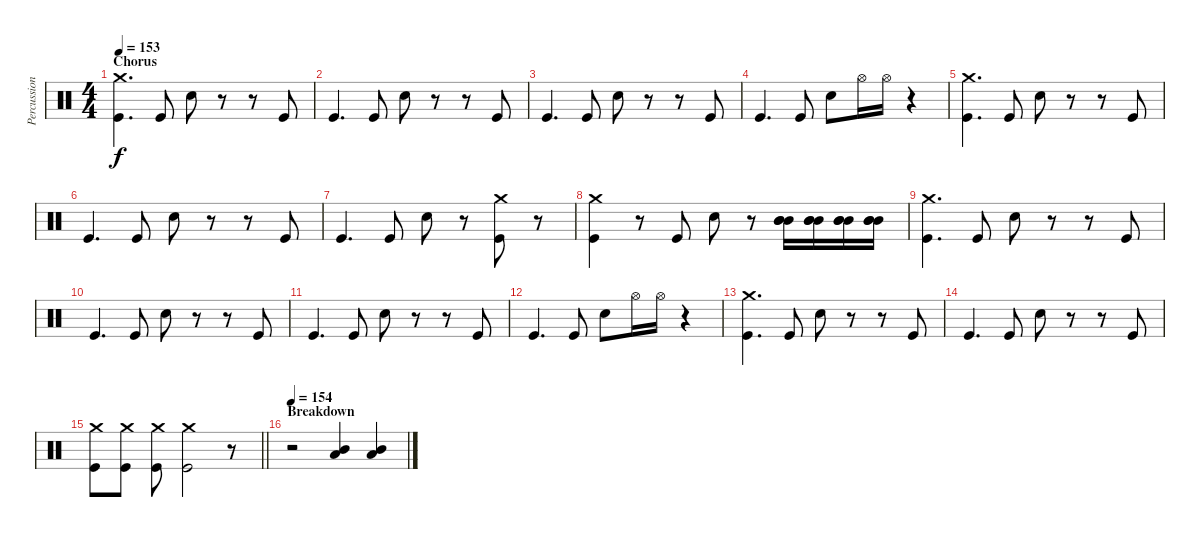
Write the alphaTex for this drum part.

\track ("Percussion" "Percussion") {instrument percussion}
\staff {score}
\articulation defaults
\ts (4 4)
\section ("" "Chorus")
\tempo 153
\clef neutral
\ks c
("Kick (hit)" "Crash medium (hit)").4{d dy f} "Kick (hit)".8 "Electric Snare (hit)".8 r.8 r.8 "Kick (hit)".8 |
"Kick (hit)".4{d} "Kick (hit)".8 "Electric Snare (hit)".8 r.8 r.8 "Kick (hit)".8 |
"Kick (hit)".4{d} "Kick (hit)".8 "Electric Snare (hit)".8 r.8 r.8 "Kick (hit)".8 |
"Kick (hit)".4{d} "Kick (hit)".8 "Electric Snare (hit)".8 "Hi-Hat (open)".16 "Hi-Hat (open)".16 r.4 |
("Kick (hit)" "Crash medium (hit)").4{d} "Kick (hit)".8 "Electric Snare (hit)".8 r.8 r.8 "Kick (hit)".8 |
"Kick (hit)".4{d} "Kick (hit)".8 "Electric Snare (hit)".8 r.8 r.8 "Kick (hit)".8 |
"Kick (hit)".4{d} "Kick (hit)".8 "Electric Snare (hit)".8 r.8 ("Kick (hit)" "Crash medium (hit)").8 r.8 |
("Kick (hit)" "Crash medium (hit)").4 r.8 "Kick (hit)".8 "Electric Snare (hit)".8 r.8 ("Mid Tom (hit)" "Mid Tom (hit)" "Mid Tom (hit)").16 ("Mid Tom (hit)" "Mid Tom (hit)" "Mid Tom (hit)").16 ("Mid Tom (hit)" "Mid Tom (hit)" "Mid Tom (hit)").16 ("Mid Tom (hit)" "Mid Tom (hit)" "Mid Tom (hit)").16 |
("Kick (hit)" "Crash medium (hit)").4{d} "Kick (hit)".8 "Electric Snare (hit)".8 r.8 r.8 "Kick (hit)".8 |
"Kick (hit)".4{d} "Kick (hit)".8 "Electric Snare (hit)".8 r.8 r.8 "Kick (hit)".8 |
"Kick (hit)".4{d} "Kick (hit)".8 "Electric Snare (hit)".8 r.8 r.8 "Kick (hit)".8 |
"Kick (hit)".4{d} "Kick (hit)".8 "Electric Snare (hit)".8 "Hi-Hat (open)".16 "Hi-Hat (open)".16 r.4 |
("Kick (hit)" "Crash medium (hit)").4{d} "Kick (hit)".8 "Electric Snare (hit)".8 r.8 r.8 "Kick (hit)".8 |
"Kick (hit)".4{d} "Kick (hit)".8 "Electric Snare (hit)".8 r.8 r.8 "Kick (hit)".8 |
\barLineRight lightlight
("Kick (hit)" "Crash medium (hit)").8 ("Kick (hit)" "Crash medium (hit)").8 ("Kick (hit)" "Crash medium (hit)").8 ("Kick (hit)" "Crash medium (hit)").2 r.8 |
\section ("" "Breakdown")
\tempo 154
r.2 ("Low Tom (hit)" "Mid Tom (hit)").4 ("Low Tom (hit)" "Mid Tom (hit)").4
